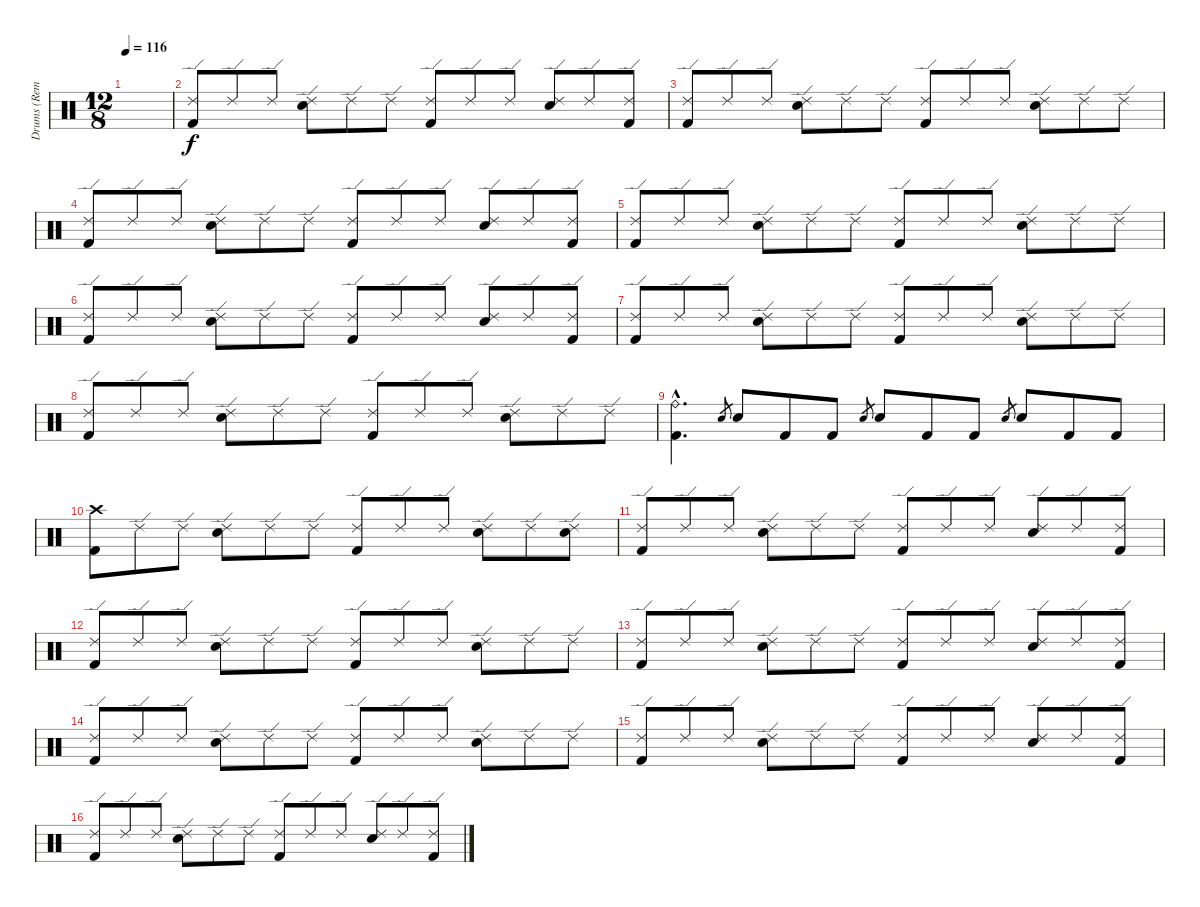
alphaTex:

\track ("Drums (Remu Aaltonen)" "Drums (Rem") {instrument percussion}
\staff {score}
\articulation defaults
\ts (12 8)
\tempo 116
\clef neutral
\ks c
|
("Ride (edge) 2" "Kick (hit) 2").8 "Ride (edge) 2".8 "Ride (edge) 2".8 ("Ride (edge) 2" "Snare (hit) 2").8 "Ride (edge) 2".8 "Ride (edge) 2".8 ("Ride (edge) 2" "Kick (hit) 2").8 "Ride (edge) 2".8 "Ride (edge) 2".8 ("Ride (edge) 2" "Snare (hit) 2").8 "Ride (edge) 2".8 ("Ride (edge) 2" "Kick (hit) 2").8 |
("Ride (edge) 2" "Kick (hit) 2").8 "Ride (edge) 2".8 "Ride (edge) 2".8 ("Ride (edge) 2" "Snare (hit) 2").8 "Ride (edge) 2".8 "Ride (edge) 2".8 ("Ride (edge) 2" "Kick (hit) 2").8 "Ride (edge) 2".8 "Ride (edge) 2".8 ("Ride (edge) 2" "Snare (hit) 2").8 "Ride (edge) 2".8 "Ride (edge) 2".8 |
("Ride (edge) 2" "Kick (hit) 2").8 "Ride (edge) 2".8 "Ride (edge) 2".8 ("Ride (edge) 2" "Snare (hit) 2").8 "Ride (edge) 2".8 "Ride (edge) 2".8 ("Ride (edge) 2" "Kick (hit) 2").8 "Ride (edge) 2".8 "Ride (edge) 2".8 ("Ride (edge) 2" "Snare (hit) 2").8 "Ride (edge) 2".8 ("Ride (edge) 2" "Kick (hit) 2").8 |
("Ride (edge) 2" "Kick (hit) 2").8 "Ride (edge) 2".8 "Ride (edge) 2".8 ("Ride (edge) 2" "Snare (hit) 2").8 "Ride (edge) 2".8 "Ride (edge) 2".8 ("Ride (edge) 2" "Kick (hit) 2").8 "Ride (edge) 2".8 "Ride (edge) 2".8 ("Ride (edge) 2" "Snare (hit) 2").8 "Ride (edge) 2".8 "Ride (edge) 2".8 |
("Ride (edge) 2" "Kick (hit) 2").8 "Ride (edge) 2".8 "Ride (edge) 2".8 ("Ride (edge) 2" "Snare (hit) 2").8 "Ride (edge) 2".8 "Ride (edge) 2".8 ("Ride (edge) 2" "Kick (hit) 2").8 "Ride (edge) 2".8 "Ride (edge) 2".8 ("Ride (edge) 2" "Snare (hit) 2").8 "Ride (edge) 2".8 ("Ride (edge) 2" "Kick (hit) 2").8 |
("Ride (edge) 2" "Kick (hit) 2").8 "Ride (edge) 2".8 "Ride (edge) 2".8 ("Ride (edge) 2" "Snare (hit) 2").8 "Ride (edge) 2".8 "Ride (edge) 2".8 ("Ride (edge) 2" "Kick (hit) 2").8 "Ride (edge) 2".8 "Ride (edge) 2".8 ("Ride (edge) 2" "Snare (hit) 2").8 "Ride (edge) 2".8 "Ride (edge) 2".8 |
("Ride (edge) 2" "Kick (hit) 2").8 "Ride (edge) 2".8 "Ride (edge) 2".8 ("Ride (edge) 2" "Snare (hit) 2").8 "Ride (edge) 2".8 "Ride (edge) 2".8 ("Ride (edge) 2" "Kick (hit) 2").8 "Ride (edge) 2".8 "Ride (edge) 2".8 ("Ride (edge) 2" "Snare (hit) 2").8 "Ride (edge) 2".8 "Ride (edge) 2".8 |
("Ride (bell)"{hac} "Kick (hit) 2"{hac}).4{d} "Snare (hit) 2".8{gr} "Snare (hit) 2".8 "Kick (hit) 2".8 "Kick (hit) 2".8 "Snare (hit) 2".8{gr} "Snare (hit) 2".8 "Kick (hit) 2".8 "Kick (hit) 2".8 "Snare (hit) 2".8{gr} "Snare (hit) 2".8 "Kick (hit) 2".8 "Kick (hit) 2".8 |
("Crash high (hit)" "Kick (hit) 2").8 "Ride (edge) 2".8 "Ride (edge) 2".8 ("Ride (edge) 2" "Snare (hit) 2").8 "Ride (edge) 2".8 "Ride (edge) 2".8 ("Ride (edge) 2" "Kick (hit) 2").8 "Ride (edge) 2".8 "Ride (edge) 2".8 ("Ride (edge) 2" "Snare (hit) 2").8 "Ride (edge) 2".8 ("Ride (edge) 2" "Snare (hit) 2").8 |
("Ride (edge) 2" "Kick (hit) 2").8 "Ride (edge) 2".8 "Ride (edge) 2".8 ("Ride (edge) 2" "Snare (hit) 2").8 "Ride (edge) 2".8 "Ride (edge) 2".8 ("Ride (edge) 2" "Kick (hit) 2").8 "Ride (edge) 2".8 "Ride (edge) 2".8 ("Ride (edge) 2" "Snare (hit) 2").8 "Ride (edge) 2".8 ("Ride (edge) 2" "Kick (hit) 2").8 |
("Ride (edge) 2" "Kick (hit) 2").8 "Ride (edge) 2".8 "Ride (edge) 2".8 ("Ride (edge) 2" "Snare (hit) 2").8 "Ride (edge) 2".8 "Ride (edge) 2".8 ("Ride (edge) 2" "Kick (hit) 2").8 "Ride (edge) 2".8 "Ride (edge) 2".8 ("Ride (edge) 2" "Snare (hit) 2").8 "Ride (edge) 2".8 "Ride (edge) 2".8 |
("Ride (edge) 2" "Kick (hit) 2").8 "Ride (edge) 2".8 "Ride (edge) 2".8 ("Ride (edge) 2" "Snare (hit) 2").8 "Ride (edge) 2".8 "Ride (edge) 2".8 ("Ride (edge) 2" "Kick (hit) 2").8 "Ride (edge) 2".8 "Ride (edge) 2".8 ("Ride (edge) 2" "Snare (hit) 2").8 "Ride (edge) 2".8 ("Ride (edge) 2" "Kick (hit) 2").8 |
("Ride (edge) 2" "Kick (hit) 2").8 "Ride (edge) 2".8 "Ride (edge) 2".8 ("Ride (edge) 2" "Snare (hit) 2").8 "Ride (edge) 2".8 "Ride (edge) 2".8 ("Ride (edge) 2" "Kick (hit) 2").8 "Ride (edge) 2".8 "Ride (edge) 2".8 ("Ride (edge) 2" "Snare (hit) 2").8 "Ride (edge) 2".8 "Ride (edge) 2".8 |
("Ride (edge) 2" "Kick (hit) 2").8 "Ride (edge) 2".8 "Ride (edge) 2".8 ("Ride (edge) 2" "Snare (hit) 2").8 "Ride (edge) 2".8 "Ride (edge) 2".8 ("Ride (edge) 2" "Kick (hit) 2").8 "Ride (edge) 2".8 "Ride (edge) 2".8 ("Ride (edge) 2" "Snare (hit) 2").8 "Ride (edge) 2".8 ("Ride (edge) 2" "Kick (hit) 2").8 |
("Ride (edge) 2" "Kick (hit) 2").8 "Ride (edge) 2".8 "Ride (edge) 2".8 ("Ride (edge) 2" "Snare (hit) 2").8 "Ride (edge) 2".8 "Ride (edge) 2".8 ("Ride (edge) 2" "Kick (hit) 2").8 "Ride (edge) 2".8 "Ride (edge) 2".8 ("Ride (edge) 2" "Snare (hit) 2").8 "Ride (edge) 2".8 ("Ride (edge) 2" "Kick (hit) 2").8
